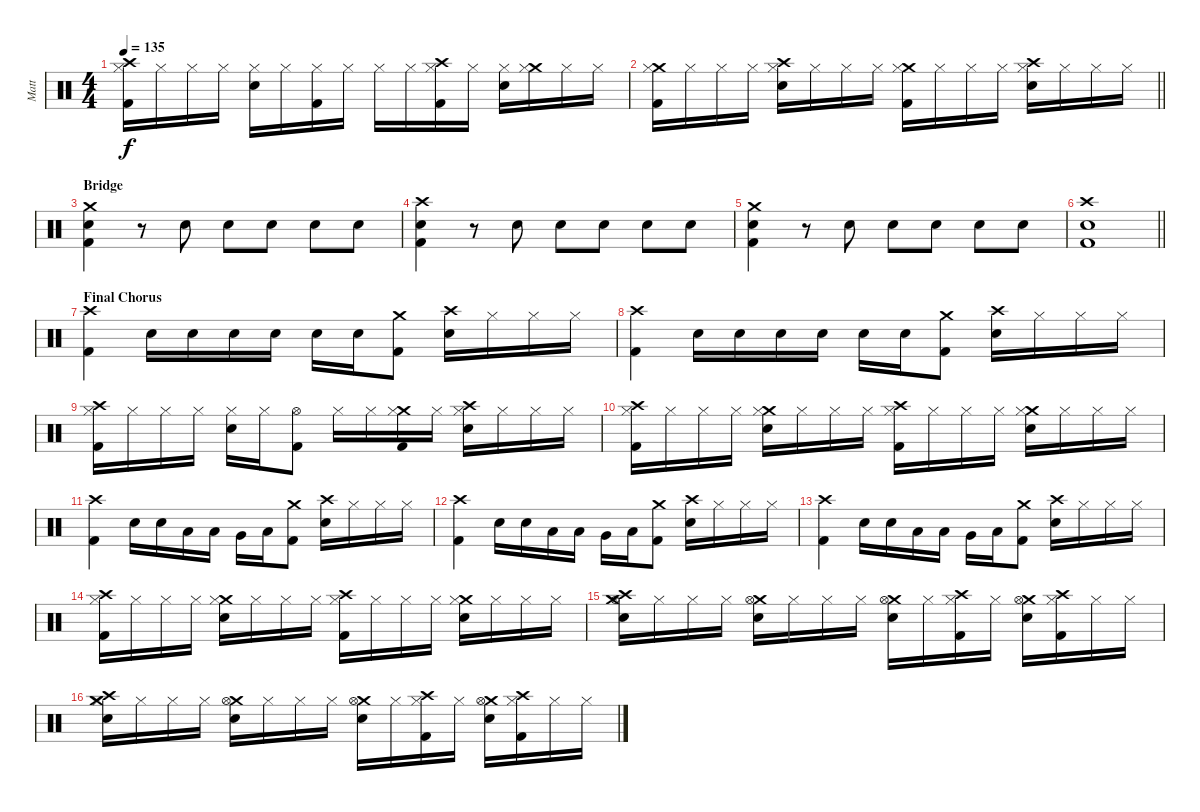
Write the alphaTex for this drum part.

\track ("Matt" "Matt") {instrument percussion}
\staff {score}
\articulation defaults
\ts (4 4)
\tempo 135
\clef neutral
\ks c
("Crash high (hit)" "Hi-Hat (closed)" "Kick (hit) 2").16{dy f} "Hi-Hat (closed)".16 "Hi-Hat (closed)".16 "Hi-Hat (closed)".16 ("Hi-Hat (closed)" "Snare (hit) 2").16 "Hi-Hat (closed)".16 ("Hi-Hat (closed)" "Kick (hit) 2").16 "Hi-Hat (closed)".16 "Hi-Hat (closed)".16 "Hi-Hat (closed)".16 ("Crash high (hit)" "Hi-Hat (closed)" "Kick (hit) 2").16 "Hi-Hat (closed)".16 ("Hi-Hat (closed)" "Snare (hit) 2").16 ("Crash medium (hit)" "Hi-Hat (closed)").16 "Hi-Hat (closed)".16 "Hi-Hat (closed)".16 |
\barLineRight lightlight
("Crash medium (hit)" "Hi-Hat (closed)" "Kick (hit) 2").16 "Hi-Hat (closed)".16 "Hi-Hat (closed)".16 "Hi-Hat (closed)".16 ("Crash high (hit)" "Hi-Hat (closed)" "Snare (hit) 2").16 "Hi-Hat (closed)".16 "Hi-Hat (closed)".16 "Hi-Hat (closed)".16 ("Crash medium (hit)" "Hi-Hat (closed)" "Kick (hit) 2").16 "Hi-Hat (closed)".16 "Hi-Hat (closed)".16 "Hi-Hat (closed)".16 ("Crash high (hit)" "Hi-Hat (closed)" "Snare (hit) 2").16 "Hi-Hat (closed)".16 "Hi-Hat (closed)".16 "Hi-Hat (closed)".16 |
\section ("" "Bridge")
("Crash medium (hit)" "Snare (hit) 2" "Kick (hit) 2").4 r.8 "Snare (hit) 2".8 "Snare (hit) 2".8 "Snare (hit) 2".8 "Snare (hit) 2".8 "Snare (hit) 2".8 |
("Crash high (hit)" "Snare (hit) 2" "Kick (hit) 2").4 r.8 "Snare (hit) 2".8 "Snare (hit) 2".8 "Snare (hit) 2".8 "Snare (hit) 2".8 "Snare (hit) 2".8 |
("Crash medium (hit)" "Snare (hit) 2" "Kick (hit) 2").4 r.8 "Snare (hit) 2".8 "Snare (hit) 2".8 "Snare (hit) 2".8 "Snare (hit) 2".8 "Snare (hit) 2".8 |
\barLineRight lightlight
("Crash high (hit)" "Snare (hit) 2" "Kick (hit) 2").1 |
\section ("" "Final Chorus")
("Crash high (hit)" "Kick (hit) 2").4 "Snare (hit) 2".16 "Snare (hit) 2".16 "Snare (hit) 2".16 "Snare (hit) 2".16 "Snare (hit) 2".16 "Snare (hit) 2".16 ("Crash medium (hit)" "Kick (hit) 2").8 ("Crash high (hit)" "Snare (hit) 2").16 "Hi-Hat (closed)".16 "Hi-Hat (closed)".16 "Hi-Hat (closed)".16 |
("Crash high (hit)" "Kick (hit) 2").4 "Snare (hit) 2".16 "Snare (hit) 2".16 "Snare (hit) 2".16 "Snare (hit) 2".16 "Snare (hit) 2".16 "Snare (hit) 2".16 ("Crash medium (hit)" "Kick (hit) 2").8 ("Crash high (hit)" "Snare (hit) 2").16 "Hi-Hat (closed)".16 "Hi-Hat (closed)".16 "Hi-Hat (closed)".16 |
("Crash high (hit)" "Hi-Hat (closed)" "Kick (hit) 2").16 "Hi-Hat (closed)".16 "Hi-Hat (closed)".16 "Hi-Hat (closed)".16 ("Hi-Hat (closed)" "Snare (hit) 2").16 "Hi-Hat (closed)".16 ("Hi-Hat (open)" "Kick (hit) 2").8 "Hi-Hat (closed)".16 "Hi-Hat (closed)".16 ("Crash medium (hit)" "Hi-Hat (closed)" "Kick (hit) 2").16 "Hi-Hat (closed)".16 ("Crash high (hit)" "Hi-Hat (closed)" "Snare (hit) 2").16 "Hi-Hat (closed)".16 "Hi-Hat (closed)".16 "Hi-Hat (closed)".16 |
("Crash high (hit)" "Hi-Hat (closed)" "Kick (hit) 2").16 "Hi-Hat (closed)".16 "Hi-Hat (closed)".16 "Hi-Hat (closed)".16 ("Crash medium (hit)" "Hi-Hat (closed)" "Snare (hit) 2").16 "Hi-Hat (closed)".16 "Hi-Hat (closed)".16 "Hi-Hat (closed)".16 ("Crash high (hit)" "Hi-Hat (closed)" "Kick (hit) 2").16 "Hi-Hat (closed)".16 "Hi-Hat (closed)".16 "Hi-Hat (closed)".16 ("Crash medium (hit)" "Hi-Hat (closed)" "Snare (hit) 2").16 "Hi-Hat (closed)".16 "Hi-Hat (closed)".16 "Hi-Hat (closed)".16 |
("Crash high (hit)" "Kick (hit) 2").4 "Snare (hit) 2".16 "Snare (hit) 2".16 "Low Tom (hit)".16 "Low Tom (hit)".16 "Very Low Tom (hit)".16 "Low Floor Tom (hit)".16 ("Crash medium (hit)" "Kick (hit) 2").8 ("Crash high (hit)" "Snare (hit) 2").16 "Hi-Hat (closed)".16 "Hi-Hat (closed)".16 "Hi-Hat (closed)".16 |
("Crash high (hit)" "Kick (hit) 2").4 "Snare (hit) 2".16 "Snare (hit) 2".16 "Low Tom (hit)".16 "Low Tom (hit)".16 "Very Low Tom (hit)".16 "Low Floor Tom (hit)".16 ("Crash medium (hit)" "Kick (hit) 2").8 ("Crash high (hit)" "Snare (hit) 2").16 "Hi-Hat (closed)".16 "Hi-Hat (closed)".16 "Hi-Hat (closed)".16 |
("Crash high (hit)" "Kick (hit) 2").4 "Snare (hit) 2".16 "Snare (hit) 2".16 "Low Tom (hit)".16 "Low Tom (hit)".16 "Very Low Tom (hit)".16 "Low Floor Tom (hit)".16 ("Crash medium (hit)" "Kick (hit) 2").8 ("Crash high (hit)" "Snare (hit) 2").16 "Hi-Hat (closed)".16 "Hi-Hat (closed)".16 "Hi-Hat (closed)".16 |
("Crash high (hit)" "Hi-Hat (closed)" "Kick (hit) 2").16 "Hi-Hat (closed)".16 "Hi-Hat (closed)".16 "Hi-Hat (closed)".16 ("Crash medium (hit)" "Hi-Hat (closed)" "Snare (hit) 2").16 "Hi-Hat (closed)".16 "Hi-Hat (closed)".16 "Hi-Hat (closed)".16 ("Crash high (hit)" "Hi-Hat (closed)" "Kick (hit) 2").16 "Hi-Hat (closed)".16 "Hi-Hat (closed)".16 "Hi-Hat (closed)".16 ("Crash medium (hit)" "Hi-Hat (closed)" "Snare (hit) 2").16 "Hi-Hat (closed)".16 "Hi-Hat (closed)".16 "Hi-Hat (closed)".16 |
("Crash medium (hit)" "Hi-Hat (open)" "Crash high (hit)" "Snare (hit) 2").16 "Hi-Hat (closed)".16 "Hi-Hat (closed)".16 "Hi-Hat (closed)".16 ("Crash medium (hit)" "Hi-Hat (open)" "Snare (hit) 2").16 "Hi-Hat (closed)".16 "Hi-Hat (closed)".16 "Hi-Hat (closed)".16 ("Crash medium (hit)" "Hi-Hat (open)" "Snare (hit) 2").16 "Hi-Hat (closed)".16 ("Hi-Hat (closed)" "Crash high (hit)" "Kick (hit) 2").16 "Hi-Hat (closed)".16 ("Crash medium (hit)" "Hi-Hat (open)" "Snare (hit) 2").16 ("Hi-Hat (closed)" "Crash high (hit)" "Kick (hit) 2").16 "Hi-Hat (closed)".16 "Hi-Hat (closed)".16 |
("Crash medium (hit)" "Hi-Hat (closed)" "Crash high (hit)" "Snare (hit) 2").16 "Hi-Hat (closed)".16 "Hi-Hat (closed)".16 "Hi-Hat (closed)".16 ("Crash medium (hit)" "Hi-Hat (open)" "Snare (hit) 2").16 "Hi-Hat (closed)".16 "Hi-Hat (closed)".16 "Hi-Hat (closed)".16 ("Crash medium (hit)" "Hi-Hat (open)" "Snare (hit) 2").16 "Hi-Hat (closed)".16 ("Crash high (hit)" "Hi-Hat (closed)" "Kick (hit) 2").16 "Hi-Hat (closed)".16 ("Crash medium (hit)" "Hi-Hat (open)" "Snare (hit) 2").16 ("Crash high (hit)" "Hi-Hat (closed)" "Kick (hit) 2").16 "Hi-Hat (closed)".16 "Hi-Hat (closed)".16
